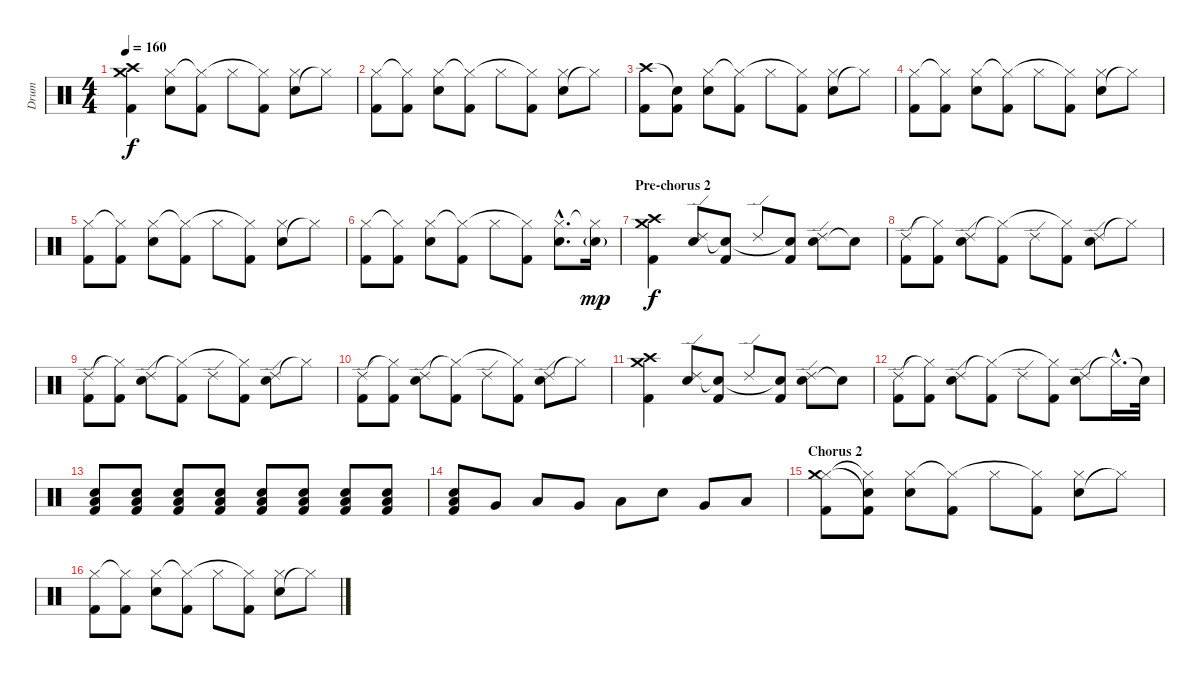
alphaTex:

\track ("Drum" "Drum") {instrument percussion}
\staff {score}
\articulation defaults
\ts (4 4)
\tempo 160
\clef neutral
\ks c
("Kick (hit) 2" "Crash high (hit)" "Crash medium (hit)").4{dy f} ("Electric Snare (hit)" "Hi-Hat (closed)").8 ("Kick (hit) 2" "Hi-Hat (closed)"{t}).8 "Hi-Hat (closed)".8 ("Kick (hit) 2" "Hi-Hat (closed)"{t}).8 ("Electric Snare (hit)" "Hi-Hat (closed)").8 "Hi-Hat (closed)"{t}.8 |
("Kick (hit) 2" "Hi-Hat (closed)").8 ("Kick (hit) 2" "Hi-Hat (closed)"{t}).8 ("Electric Snare (hit)" "Hi-Hat (closed)").8 ("Kick (hit) 2" "Hi-Hat (closed)"{t}).8 "Hi-Hat (closed)".8 ("Kick (hit) 2" "Hi-Hat (closed)"{t}).8 ("Electric Snare (hit)" "Hi-Hat (closed)").8 "Hi-Hat (closed)"{t}.8 |
("Kick (hit) 2" "Crash high (hit)").8 ("Kick (hit) 2" "Snare (hit)"{t}).8 ("Electric Snare (hit)" "Hi-Hat (closed)").8 ("Kick (hit) 2" "Hi-Hat (closed)"{t}).8 "Hi-Hat (closed)".8 ("Kick (hit) 2" "Hi-Hat (closed)"{t}).8 ("Electric Snare (hit)" "Hi-Hat (closed)").8 "Hi-Hat (closed)"{t}.8 |
("Kick (hit) 2" "Hi-Hat (closed)").8 ("Kick (hit) 2" "Hi-Hat (closed)"{t}).8 ("Electric Snare (hit)" "Hi-Hat (closed)").8 ("Kick (hit) 2" "Hi-Hat (closed)"{t}).8 "Hi-Hat (closed)".8 ("Kick (hit) 2" "Hi-Hat (closed)"{t}).8 ("Electric Snare (hit)" "Hi-Hat (closed)").8 "Hi-Hat (closed)"{t}.8 |
("Kick (hit) 2" "Hi-Hat (closed)").8 ("Kick (hit) 2" "Hi-Hat (closed)"{t}).8 ("Electric Snare (hit)" "Hi-Hat (closed)").8 ("Kick (hit) 2" "Hi-Hat (closed)"{t}).8 "Hi-Hat (closed)".8 ("Kick (hit) 2" "Hi-Hat (closed)"{t}).8 ("Electric Snare (hit)" "Hi-Hat (closed)").8 "Hi-Hat (closed)"{t}.8 |
("Kick (hit) 2" "Hi-Hat (closed)").8 ("Kick (hit) 2" "Hi-Hat (closed)"{t}).8 ("Electric Snare (hit)" "Hi-Hat (closed)").8 ("Kick (hit) 2" "Hi-Hat (closed)"{t}).8 "Hi-Hat (closed)".8 ("Kick (hit) 2" "Hi-Hat (closed)"{t}).8 ("Electric Snare (hit)"{hac} "Hi-Hat (closed)"{hac}).8{d} ("Electric Snare (hit)"{g} "Hi-Hat (closed)"{t}).16{dy mp} |
\section ("" "Pre-chorus 2")
("Kick (hit) 2" "Crash high (hit)" "Crash medium (hit)").4{dy f} ("Electric Snare (hit)" "Ride (edge) 2").8 ("Kick (hit) 2" "Snare (hit)"{t}).8 "Ride (edge) 2".8 ("Kick (hit) 2" "Snare (hit)"{t}).8 ("Electric Snare (hit)" "Ride (edge) 2").8 "Snare (hit)"{t}.8 |
("Kick (hit) 2" "Ride (edge) 2").8 ("Kick (hit) 2" "Hi-Hat (closed)"{t}).8 ("Electric Snare (hit)" "Ride (edge) 2").8 ("Kick (hit) 2" "Hi-Hat (closed)"{t}).8 "Ride (edge) 2".8 ("Kick (hit) 2" "Hi-Hat (closed)"{t}).8 ("Electric Snare (hit)" "Ride (edge) 2").8 "Hi-Hat (closed)"{t}.8 |
("Kick (hit) 2" "Ride (edge) 2").8 ("Kick (hit) 2" "Hi-Hat (closed)"{t}).8 ("Electric Snare (hit)" "Ride (edge) 2").8 ("Kick (hit) 2" "Hi-Hat (closed)"{t}).8 "Ride (edge) 2".8 ("Kick (hit) 2" "Hi-Hat (closed)"{t}).8 ("Electric Snare (hit)" "Ride (edge) 2").8 "Hi-Hat (closed)"{t}.8 |
("Kick (hit) 2" "Ride (edge) 2").8 ("Kick (hit) 2" "Hi-Hat (closed)"{t}).8 ("Electric Snare (hit)" "Ride (edge) 2").8 ("Kick (hit) 2" "Hi-Hat (closed)"{t}).8 "Ride (edge) 2".8 ("Kick (hit) 2" "Hi-Hat (closed)"{t}).8 ("Electric Snare (hit)" "Ride (edge) 2").8 "Hi-Hat (closed)"{t}.8 |
("Kick (hit) 2" "Crash high (hit)" "Crash medium (hit)").4 ("Electric Snare (hit)" "Ride (edge) 2").8 ("Kick (hit) 2" "Snare (hit)"{t}).8 "Ride (edge) 2".8 ("Kick (hit) 2" "Snare (hit)"{t}).8 ("Electric Snare (hit)" "Ride (edge) 2").8 "Snare (hit)"{t}.8 |
("Kick (hit) 2" "Ride (edge) 2").8 ("Kick (hit) 2" "Hi-Hat (closed)"{t}).8 ("Electric Snare (hit)" "Ride (edge) 2").8 ("Kick (hit) 2" "Hi-Hat (closed)"{t}).8 "Ride (edge) 2".8 ("Kick (hit) 2" "Hi-Hat (closed)"{t}).8 ("Electric Snare (hit)" "Ride (edge) 2").8 "Hi-Hat (closed)"{hac t}.16{d} "Snare (hit)"{t}.32{volume 3} |
("Kick (hit) 2" "Electric Snare (hit)" "Low Floor Tom (hit)").8{volume 10} ("Kick (hit) 2" "Electric Snare (hit)" "Low Floor Tom (hit)").8 ("Kick (hit) 2" "Electric Snare (hit)" "Low Floor Tom (hit)").8 ("Kick (hit) 2" "Electric Snare (hit)" "Low Floor Tom (hit)").8 ("Kick (hit) 2" "Electric Snare (hit)" "Low Floor Tom (hit)").8 ("Kick (hit) 2" "Electric Snare (hit)" "Low Floor Tom (hit)").8 ("Kick (hit) 2" "Electric Snare (hit)" "Low Floor Tom (hit)").8 ("Kick (hit) 2" "Electric Snare (hit)" "Low Floor Tom (hit)").8 |
("Kick (hit) 2" "Electric Snare (hit)" "Low Floor Tom (hit)").8 "Very Low Tom (hit)".8 "Low Floor Tom (hit)".8 "Very Low Tom (hit)".8 "Low Floor Tom (hit)".8 "Electric Snare (hit)".8 "Very Low Tom (hit)".8 "Low Floor Tom (hit)".8 |
\section ("" "Chorus 2")
("Kick (hit) 2" "Hi-Hat (closed)" "Crash medium (hit)").8 ("Kick (hit) 2" "Electric Snare (hit)"{t} "Hi-Hat (closed)"{t}).8 ("Electric Snare (hit)" "Hi-Hat (closed)").8 ("Kick (hit) 2" "Hi-Hat (closed)"{t}).8 "Hi-Hat (closed)".8 ("Kick (hit) 2" "Hi-Hat (closed)"{t}).8 ("Electric Snare (hit)" "Hi-Hat (closed)").8 "Hi-Hat (closed)"{t}.8 |
("Kick (hit) 2" "Hi-Hat (closed)").8 ("Kick (hit) 2" "Hi-Hat (closed)"{t}).8 ("Electric Snare (hit)" "Hi-Hat (closed)").8 ("Kick (hit) 2" "Hi-Hat (closed)"{t}).8 "Hi-Hat (closed)".8 ("Kick (hit) 2" "Hi-Hat (closed)"{t}).8 ("Electric Snare (hit)" "Hi-Hat (closed)").8 "Hi-Hat (closed)"{t}.8
